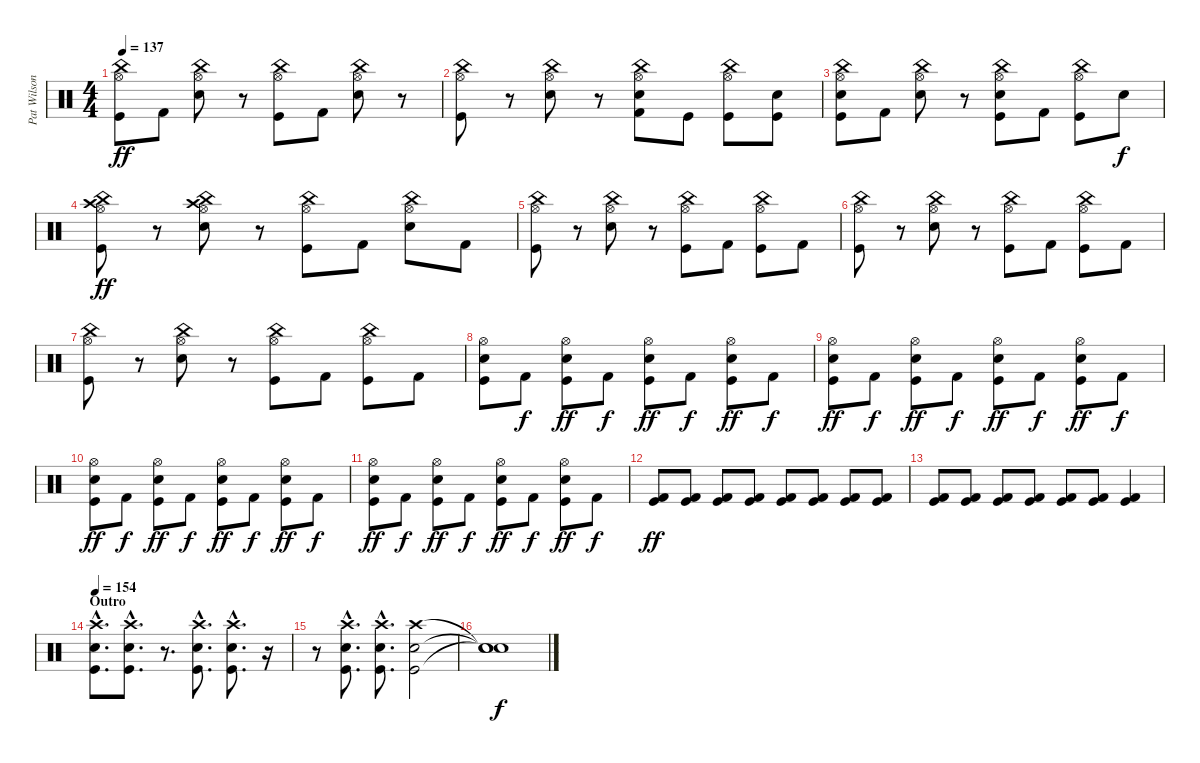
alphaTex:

\track ("Pat Wilson" "Pat Wilson") {instrument percussion}
\staff {score}
\articulation defaults
\ts (4 4)
\tempo 137
\clef neutral
\ks c
("Hi-Hat (open)" "China (hit)" "Kick (hit)").8{dy ff} "Kick (hit) 2".8 ("Hi-Hat (open)" "China (hit)" "Snare (hit) 2").8 r.8 ("Hi-Hat (open)" "China (hit)" "Kick (hit)").8 "Kick (hit) 2".8 ("Hi-Hat (open)" "China (hit)" "Snare (hit) 2").8 r.8 |
("Hi-Hat (open)" "China (hit)" "Kick (hit)").8 r.8 ("Hi-Hat (open)" "China (hit)" "Snare (hit) 2").8 r.8 ("Hi-Hat (open)" "China (hit)" "Snare (hit) 2" "Kick (hit) 2").8 "Kick (hit)".8 ("Hi-Hat (open)" "China (hit)" "Kick (hit)").8 ("Snare (hit) 2" "Kick (hit)").8 |
("Hi-Hat (open)" "China (hit)" "Snare (hit) 2" "Kick (hit)").8 "Kick (hit) 2".8 ("Hi-Hat (open)" "China (hit)" "Snare (hit) 2").8 r.8 ("Hi-Hat (open)" "China (hit)" "Snare (hit) 2" "Kick (hit)").8 "Kick (hit) 2".8 ("Hi-Hat (open)" "China (hit)" "Kick (hit)").8 "Snare (hit) 2".8{dy f} |
("Hi-Hat (open)" "China (hit)" "Crash high (hit)" "Kick (hit)").8{dy ff} r.8 ("Hi-Hat (open)" "China (hit)" "Crash high (hit)" "Snare (hit) 2").8 r.8 ("Hi-Hat (open)" "China (hit)" "Kick (hit)").8 "Kick (hit) 2".8 ("Hi-Hat (open)" "China (hit)" "Snare (hit) 2").8 "Kick (hit) 2".8 |
("Hi-Hat (open)" "China (hit)" "Kick (hit)").8 r.8 ("Hi-Hat (open)" "China (hit)" "Snare (hit) 2").8 r.8 ("Hi-Hat (open)" "China (hit)" "Kick (hit)").8 "Kick (hit) 2".8 ("Hi-Hat (open)" "China (hit)" "Kick (hit)").8 "Kick (hit) 2".8 |
("Hi-Hat (open)" "China (hit)" "Kick (hit)").8 r.8 ("Hi-Hat (open)" "China (hit)" "Snare (hit) 2").8 r.8 ("Hi-Hat (open)" "China (hit)" "Kick (hit)").8 "Kick (hit) 2".8 ("Hi-Hat (open)" "China (hit)" "Kick (hit)").8 "Kick (hit) 2".8 |
("Hi-Hat (open)" "China (hit)" "Kick (hit)").8 r.8 ("Hi-Hat (open)" "China (hit)" "Snare (hit) 2").8 r.8 ("Hi-Hat (open)" "China (hit)" "Kick (hit)").8 "Kick (hit) 2".8 ("Hi-Hat (open)" "China (hit)" "Kick (hit)").8 "Kick (hit) 2".8 |
("Hi-Hat (open)" "Snare (hit) 2" "Kick (hit)").8 "Kick (hit) 2".8{dy f} ("Hi-Hat (open)" "Snare (hit) 2" "Kick (hit)").8{dy ff} "Kick (hit) 2".8{dy f} ("Hi-Hat (open)" "Snare (hit) 2" "Kick (hit)").8{dy ff} "Kick (hit) 2".8{dy f} ("Hi-Hat (open)" "Snare (hit) 2" "Kick (hit)").8{dy ff} "Kick (hit) 2".8{dy f} |
("Hi-Hat (open)" "Snare (hit) 2" "Kick (hit)").8{dy ff} "Kick (hit) 2".8{dy f} ("Hi-Hat (open)" "Snare (hit) 2" "Kick (hit)").8{dy ff} "Kick (hit) 2".8{dy f} ("Hi-Hat (open)" "Snare (hit) 2" "Kick (hit)").8{dy ff} "Kick (hit) 2".8{dy f} ("Hi-Hat (open)" "Snare (hit) 2" "Kick (hit)").8{dy ff} "Kick (hit) 2".8{dy f} |
("Hi-Hat (open)" "Snare (hit) 2" "Kick (hit)").8{dy ff} "Kick (hit) 2".8{dy f} ("Hi-Hat (open)" "Snare (hit) 2" "Kick (hit)").8{dy ff} "Kick (hit) 2".8{dy f} ("Hi-Hat (open)" "Snare (hit) 2" "Kick (hit)").8{dy ff} "Kick (hit) 2".8{dy f} ("Hi-Hat (open)" "Snare (hit) 2" "Kick (hit)").8{dy ff} "Kick (hit) 2".8{dy f} |
("Hi-Hat (open)" "Snare (hit) 2" "Kick (hit)").8{dy ff} "Kick (hit) 2".8{dy f} ("Hi-Hat (open)" "Snare (hit) 2" "Kick (hit)").8{dy ff} "Kick (hit) 2".8{dy f} ("Hi-Hat (open)" "Snare (hit) 2" "Kick (hit)").8{dy ff} "Kick (hit) 2".8{dy f} ("Hi-Hat (open)" "Snare (hit) 2" "Kick (hit)").8{dy ff} "Kick (hit) 2".8{dy f} |
("Kick (hit)" "Kick (hit) 2").8{dy ff} ("Kick (hit)" "Kick (hit) 2").8 ("Kick (hit)" "Kick (hit) 2").8 ("Kick (hit)" "Kick (hit) 2").8 ("Kick (hit)" "Kick (hit) 2").8 ("Kick (hit)" "Kick (hit) 2").8 ("Kick (hit)" "Kick (hit) 2").8 ("Kick (hit)" "Kick (hit) 2").8 |
("Kick (hit)" "Kick (hit) 2").8 ("Kick (hit)" "Kick (hit) 2").8 ("Kick (hit)" "Kick (hit) 2").8 ("Kick (hit)" "Kick (hit) 2").8 ("Kick (hit)" "Kick (hit) 2").8 ("Kick (hit)" "Kick (hit) 2").8 ("Kick (hit)" "Kick (hit) 2").4 |
\section ("" "Outro")
\tempo 154
("Crash high (hit)"{hac} "Snare (hit) 2"{hac} "Kick (hit)"{hac}).8{d} ("Crash high (hit)"{hac} "Snare (hit) 2"{hac} "Kick (hit)"{hac}).8{d} r.8{d} ("Crash high (hit)"{hac} "Snare (hit) 2"{hac} "Kick (hit)"{hac}).8{d} ("Crash high (hit)"{hac} "Snare (hit) 2"{hac} "Kick (hit)"{hac}).8{d} r.16 |
r.8 ("Crash high (hit)"{hac} "Snare (hit) 2"{hac} "Kick (hit)"{hac}).8{d} ("Crash high (hit)"{hac} "Snare (hit) 2"{hac} "Kick (hit)"{hac}).8{d} ("Crash high (hit)" "Snare (hit) 2" "Kick (hit)").2 |
("Snare (hit)"{t} "Snare (hit)"{t} "Snare (hit)"{t}).1{dy f}
